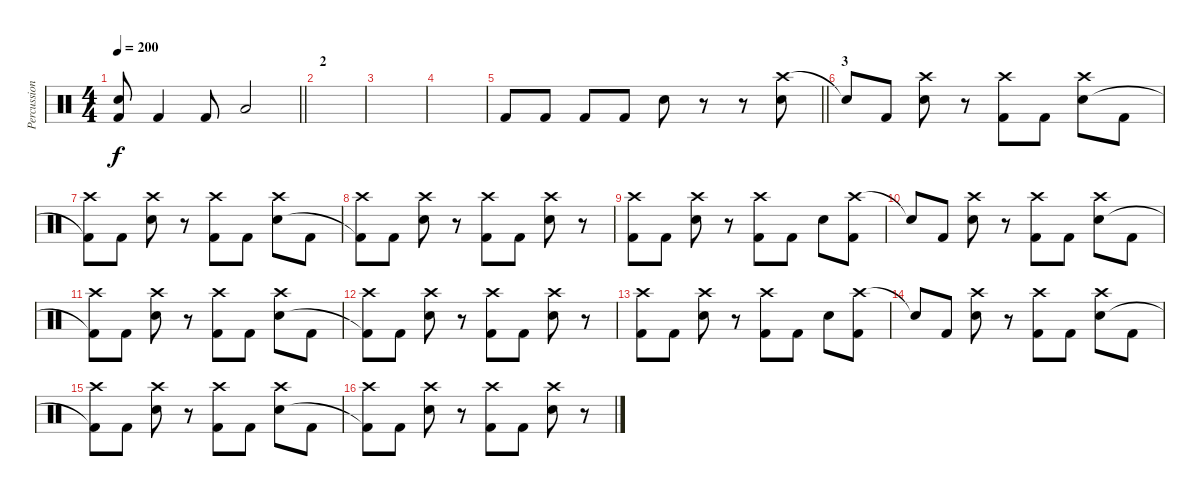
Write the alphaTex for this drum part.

\track ("Percussion" "Percussion") {instrument percussion}
\staff {score}
\articulation defaults
\ts (4 4)
\tempo 200
\clef neutral
\barLineRight lightlight
\ks c
("Snare (hit) 2" "Kick (hit) 2"{t}).8{dy f} "Kick (hit) 2".4 "Kick (hit) 2".8 "Low Floor Tom (hit)".2 |
\section ("" "2")
|
|
|
\barLineRight lightlight "Kick (hit) 2".8 "Kick (hit) 2".8 "Kick (hit) 2".8 "Kick (hit) 2".8 "Snare (hit) 2".8
r.8 r.8 ("Crash high (hit)" "Snare (hit) 2").8 |
\section ("" "3")
"Snare (hit)"{t}.8 "Kick (hit) 2".8 ("Crash high (hit)" "Snare (hit) 2").8 r.8 ("Crash high (hit)" "Kick (hit) 2").8 "Kick (hit) 2".8 ("Crash high (hit)" "Snare (hit) 2").8 "Kick (hit) 2".8 |
("Crash high (hit)" "Kick (hit) 2"{t}).8 "Kick (hit) 2".8 ("Crash high (hit)" "Snare (hit) 2").8 r.8 ("Crash high (hit)" "Kick (hit) 2").8 "Kick (hit) 2".8 ("Crash high (hit)" "Snare (hit) 2").8 "Kick (hit) 2".8 |
("Crash high (hit)" "Kick (hit) 2"{t}).8 "Kick (hit) 2".8 ("Crash high (hit)" "Snare (hit) 2").8 r.8 ("Crash high (hit)" "Kick (hit) 2").8 "Kick (hit) 2".8 ("Crash high (hit)" "Snare (hit) 2").8 r.8 |
("Crash high (hit)" "Kick (hit) 2").8 "Kick (hit) 2".8 ("Crash high (hit)" "Snare (hit) 2").8 r.8 ("Crash high (hit)" "Kick (hit) 2").8 "Kick (hit) 2".8 "Snare (hit) 2".8 ("Crash high (hit)" "Kick (hit) 2").8 |
"Snare (hit)"{t}.8 "Kick (hit) 2".8 ("Crash high (hit)" "Snare (hit) 2").8 r.8 ("Crash high (hit)" "Kick (hit) 2").8 "Kick (hit) 2".8 ("Crash high (hit)" "Snare (hit) 2").8 "Kick (hit) 2".8 |
("Crash high (hit)" "Kick (hit) 2"{t}).8 "Kick (hit) 2".8 ("Crash high (hit)" "Snare (hit) 2").8 r.8 ("Crash high (hit)" "Kick (hit) 2").8 "Kick (hit) 2".8 ("Crash high (hit)" "Snare (hit) 2").8 "Kick (hit) 2".8 |
("Crash high (hit)" "Kick (hit) 2"{t}).8 "Kick (hit) 2".8 ("Crash high (hit)" "Snare (hit) 2").8 r.8 ("Crash high (hit)" "Kick (hit) 2").8 "Kick (hit) 2".8 ("Crash high (hit)" "Snare (hit) 2").8 r.8 |
("Crash high (hit)" "Kick (hit) 2").8 "Kick (hit) 2".8 ("Crash high (hit)" "Snare (hit) 2").8 r.8 ("Crash high (hit)" "Kick (hit) 2").8 "Kick (hit) 2".8 "Snare (hit) 2".8 ("Crash high (hit)" "Kick (hit) 2").8 |
"Snare (hit)"{t}.8 "Kick (hit) 2".8 ("Crash high (hit)" "Snare (hit) 2").8 r.8 ("Crash high (hit)" "Kick (hit) 2").8 "Kick (hit) 2".8 ("Crash high (hit)" "Snare (hit) 2").8 "Kick (hit) 2".8 |
("Crash high (hit)" "Kick (hit) 2"{t}).8 "Kick (hit) 2".8 ("Crash high (hit)" "Snare (hit) 2").8 r.8 ("Crash high (hit)" "Kick (hit) 2").8 "Kick (hit) 2".8 ("Crash high (hit)" "Snare (hit) 2").8 "Kick (hit) 2".8 |
("Crash high (hit)" "Kick (hit) 2"{t}).8 "Kick (hit) 2".8 ("Crash high (hit)" "Snare (hit) 2").8 r.8 ("Crash high (hit)" "Kick (hit) 2").8 "Kick (hit) 2".8 ("Crash high (hit)" "Snare (hit) 2").8 r.8
